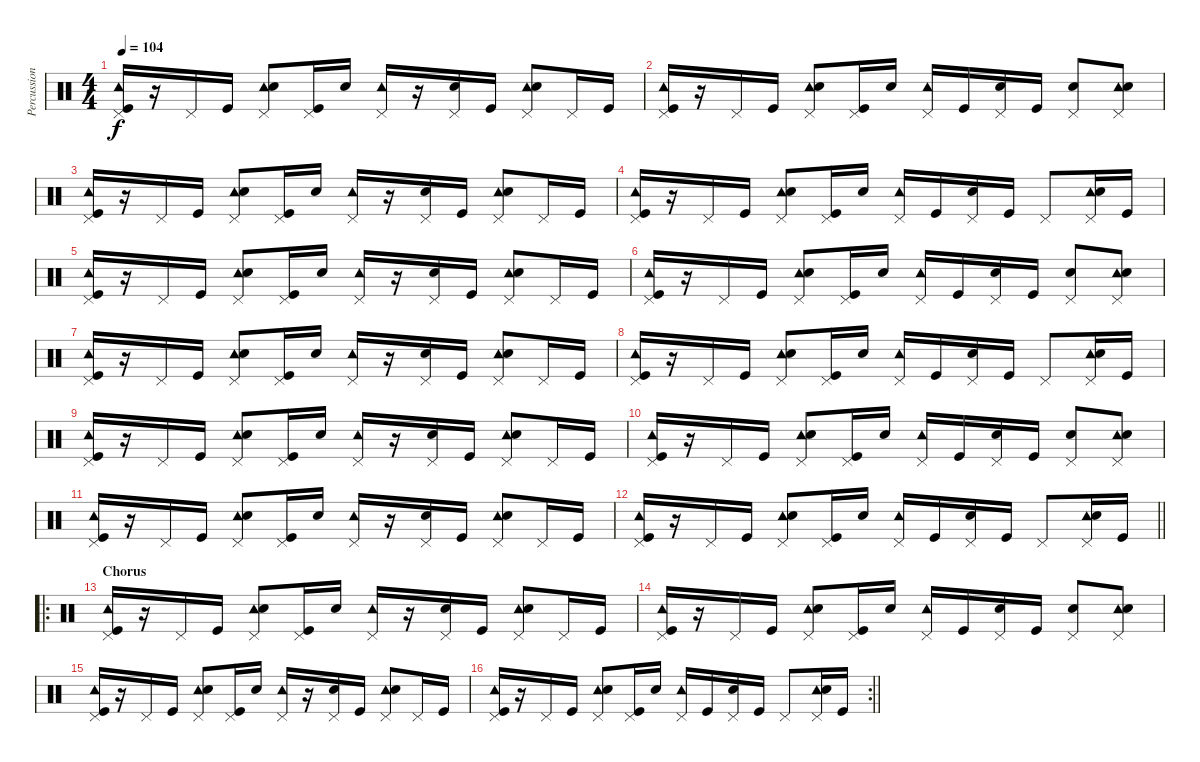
\track ("Percussion" "Percussion") {instrument percussion}
\staff {score}
\articulation defaults
\ts (4 4)
\tempo 104
\clef neutral
\ks c
("Tambourine (hit)" "Pedal Hi-Hat (hit)" "Kick (hit)").16{dy f} r.16 "Pedal Hi-Hat (hit)".16 "Kick (hit)".16 ("Tambourine (hit)" "Pedal Hi-Hat (hit)" "Snare (hit) 2").8 ("Pedal Hi-Hat (hit)" "Kick (hit)").16 "Snare (hit) 2".16 ("Tambourine (hit)" "Pedal Hi-Hat (hit)").16 r.16 ("Pedal Hi-Hat (hit)" "Snare (hit) 2").16 "Kick (hit)".16 ("Tambourine (hit)" "Pedal Hi-Hat (hit)" "Snare (hit) 2").8 "Pedal Hi-Hat (hit)".16 "Kick (hit)".16 |
("Tambourine (hit)" "Pedal Hi-Hat (hit)" "Kick (hit)").16 r.16 "Pedal Hi-Hat (hit)".16 "Kick (hit)".16 ("Tambourine (hit)" "Pedal Hi-Hat (hit)" "Snare (hit) 2").8 ("Pedal Hi-Hat (hit)" "Kick (hit)").16 "Snare (hit) 2".16 ("Tambourine (hit)" "Pedal Hi-Hat (hit)").16 "Kick (hit)".16 ("Pedal Hi-Hat (hit)" "Snare (hit) 2").16 "Kick (hit)".16 ("Pedal Hi-Hat (hit)" "Snare (hit) 2").8 ("Tambourine (hit)" "Pedal Hi-Hat (hit)" "Snare (hit) 2").8 |
("Tambourine (hit)" "Pedal Hi-Hat (hit)" "Kick (hit)").16 r.16 "Pedal Hi-Hat (hit)".16 "Kick (hit)".16 ("Tambourine (hit)" "Pedal Hi-Hat (hit)" "Snare (hit) 2").8 ("Pedal Hi-Hat (hit)" "Kick (hit)").16 "Snare (hit) 2".16 ("Tambourine (hit)" "Pedal Hi-Hat (hit)").16 r.16 ("Pedal Hi-Hat (hit)" "Snare (hit) 2").16 "Kick (hit)".16 ("Tambourine (hit)" "Pedal Hi-Hat (hit)" "Snare (hit) 2").8 "Pedal Hi-Hat (hit)".16 "Kick (hit)".16 |
("Tambourine (hit)" "Pedal Hi-Hat (hit)" "Kick (hit)").16 r.16 "Pedal Hi-Hat (hit)".16 "Kick (hit)".16 ("Tambourine (hit)" "Pedal Hi-Hat (hit)" "Snare (hit) 2").8 ("Pedal Hi-Hat (hit)" "Kick (hit)").16 "Snare (hit) 2".16 ("Tambourine (hit)" "Pedal Hi-Hat (hit)").16 "Kick (hit)".16 ("Pedal Hi-Hat (hit)" "Snare (hit) 2").16 "Kick (hit)".16 "Pedal Hi-Hat (hit)".8 ("Tambourine (hit)" "Pedal Hi-Hat (hit)" "Snare (hit) 2").16 "Kick (hit)".16 |
("Tambourine (hit)" "Pedal Hi-Hat (hit)" "Kick (hit)").16 r.16 "Pedal Hi-Hat (hit)".16 "Kick (hit)".16 ("Tambourine (hit)" "Pedal Hi-Hat (hit)" "Snare (hit) 2").8 ("Pedal Hi-Hat (hit)" "Kick (hit)").16 "Snare (hit) 2".16 ("Tambourine (hit)" "Pedal Hi-Hat (hit)").16 r.16 ("Pedal Hi-Hat (hit)" "Snare (hit) 2").16 "Kick (hit)".16 ("Tambourine (hit)" "Pedal Hi-Hat (hit)" "Snare (hit) 2").8 "Pedal Hi-Hat (hit)".16 "Kick (hit)".16 |
("Tambourine (hit)" "Pedal Hi-Hat (hit)" "Kick (hit)").16 r.16 "Pedal Hi-Hat (hit)".16 "Kick (hit)".16 ("Tambourine (hit)" "Pedal Hi-Hat (hit)" "Snare (hit) 2").8 ("Pedal Hi-Hat (hit)" "Kick (hit)").16 "Snare (hit) 2".16 ("Tambourine (hit)" "Pedal Hi-Hat (hit)").16 "Kick (hit)".16 ("Pedal Hi-Hat (hit)" "Snare (hit) 2").16 "Kick (hit)".16 ("Pedal Hi-Hat (hit)" "Snare (hit) 2").8 ("Tambourine (hit)" "Pedal Hi-Hat (hit)" "Snare (hit) 2").8 |
("Tambourine (hit)" "Pedal Hi-Hat (hit)" "Kick (hit)").16 r.16 "Pedal Hi-Hat (hit)".16 "Kick (hit)".16 ("Tambourine (hit)" "Pedal Hi-Hat (hit)" "Snare (hit) 2").8 ("Pedal Hi-Hat (hit)" "Kick (hit)").16 "Snare (hit) 2".16 ("Tambourine (hit)" "Pedal Hi-Hat (hit)").16 r.16 ("Pedal Hi-Hat (hit)" "Snare (hit) 2").16 "Kick (hit)".16 ("Tambourine (hit)" "Pedal Hi-Hat (hit)" "Snare (hit) 2").8 "Pedal Hi-Hat (hit)".16 "Kick (hit)".16 |
("Tambourine (hit)" "Pedal Hi-Hat (hit)" "Kick (hit)").16 r.16 "Pedal Hi-Hat (hit)".16 "Kick (hit)".16 ("Tambourine (hit)" "Pedal Hi-Hat (hit)" "Snare (hit) 2").8 ("Pedal Hi-Hat (hit)" "Kick (hit)").16 "Snare (hit) 2".16 ("Tambourine (hit)" "Pedal Hi-Hat (hit)").16 "Kick (hit)".16 ("Pedal Hi-Hat (hit)" "Snare (hit) 2").16 "Kick (hit)".16 "Pedal Hi-Hat (hit)".8 ("Tambourine (hit)" "Pedal Hi-Hat (hit)" "Snare (hit) 2").16 "Kick (hit)".16 |
("Tambourine (hit)" "Pedal Hi-Hat (hit)" "Kick (hit)").16 r.16 "Pedal Hi-Hat (hit)".16 "Kick (hit)".16 ("Tambourine (hit)" "Pedal Hi-Hat (hit)" "Snare (hit) 2").8 ("Pedal Hi-Hat (hit)" "Kick (hit)").16 "Snare (hit) 2".16 ("Tambourine (hit)" "Pedal Hi-Hat (hit)").16 r.16 ("Pedal Hi-Hat (hit)" "Snare (hit) 2").16 "Kick (hit)".16 ("Tambourine (hit)" "Pedal Hi-Hat (hit)" "Snare (hit) 2").8 "Pedal Hi-Hat (hit)".16 "Kick (hit)".16 |
("Tambourine (hit)" "Pedal Hi-Hat (hit)" "Kick (hit)").16 r.16 "Pedal Hi-Hat (hit)".16 "Kick (hit)".16 ("Tambourine (hit)" "Pedal Hi-Hat (hit)" "Snare (hit) 2").8 ("Pedal Hi-Hat (hit)" "Kick (hit)").16 "Snare (hit) 2".16 ("Tambourine (hit)" "Pedal Hi-Hat (hit)").16 "Kick (hit)".16 ("Pedal Hi-Hat (hit)" "Snare (hit) 2").16 "Kick (hit)".16 ("Pedal Hi-Hat (hit)" "Snare (hit) 2").8 ("Tambourine (hit)" "Pedal Hi-Hat (hit)" "Snare (hit) 2").8 |
("Tambourine (hit)" "Pedal Hi-Hat (hit)" "Kick (hit)").16 r.16 "Pedal Hi-Hat (hit)".16 "Kick (hit)".16 ("Tambourine (hit)" "Pedal Hi-Hat (hit)" "Snare (hit) 2").8 ("Pedal Hi-Hat (hit)" "Kick (hit)").16 "Snare (hit) 2".16 ("Tambourine (hit)" "Pedal Hi-Hat (hit)").16 r.16 ("Pedal Hi-Hat (hit)" "Snare (hit) 2").16 "Kick (hit)".16 ("Tambourine (hit)" "Pedal Hi-Hat (hit)" "Snare (hit) 2").8 "Pedal Hi-Hat (hit)".16 "Kick (hit)".16 |
\barLineRight lightlight
("Tambourine (hit)" "Pedal Hi-Hat (hit)" "Kick (hit)").16 r.16 "Pedal Hi-Hat (hit)".16 "Kick (hit)".16 ("Tambourine (hit)" "Pedal Hi-Hat (hit)" "Snare (hit) 2").8 ("Pedal Hi-Hat (hit)" "Kick (hit)").16 "Snare (hit) 2".16 ("Tambourine (hit)" "Pedal Hi-Hat (hit)").16 "Kick (hit)".16 ("Pedal Hi-Hat (hit)" "Snare (hit) 2").16 "Kick (hit)".16 "Pedal Hi-Hat (hit)".8 ("Tambourine (hit)" "Pedal Hi-Hat (hit)" "Snare (hit) 2").16 "Kick (hit)".16 |
\ro
\section ("" "Chorus")
("Tambourine (hit)" "Pedal Hi-Hat (hit)" "Kick (hit)").16 r.16 "Pedal Hi-Hat (hit)".16 "Kick (hit)".16 ("Tambourine (hit)" "Pedal Hi-Hat (hit)" "Snare (hit) 2").8 ("Pedal Hi-Hat (hit)" "Kick (hit)").16 "Snare (hit) 2".16 ("Tambourine (hit)" "Pedal Hi-Hat (hit)").16 r.16 ("Pedal Hi-Hat (hit)" "Snare (hit) 2").16 "Kick (hit)".16 ("Tambourine (hit)" "Pedal Hi-Hat (hit)" "Snare (hit) 2").8 "Pedal Hi-Hat (hit)".16 "Kick (hit)".16 |
("Tambourine (hit)" "Pedal Hi-Hat (hit)" "Kick (hit)").16 r.16 "Pedal Hi-Hat (hit)".16 "Kick (hit)".16 ("Tambourine (hit)" "Pedal Hi-Hat (hit)" "Snare (hit) 2").8 ("Pedal Hi-Hat (hit)" "Kick (hit)").16 "Snare (hit) 2".16 ("Tambourine (hit)" "Pedal Hi-Hat (hit)").16 "Kick (hit)".16 ("Pedal Hi-Hat (hit)" "Snare (hit) 2").16 "Kick (hit)".16 ("Pedal Hi-Hat (hit)" "Snare (hit) 2").8 ("Tambourine (hit)" "Pedal Hi-Hat (hit)" "Snare (hit) 2").8 |
("Tambourine (hit)" "Pedal Hi-Hat (hit)" "Kick (hit)").16 r.16 "Pedal Hi-Hat (hit)".16 "Kick (hit)".16 ("Tambourine (hit)" "Pedal Hi-Hat (hit)" "Snare (hit) 2").8 ("Pedal Hi-Hat (hit)" "Kick (hit)").16 "Snare (hit) 2".16 ("Tambourine (hit)" "Pedal Hi-Hat (hit)").16 r.16 ("Pedal Hi-Hat (hit)" "Snare (hit) 2").16 "Kick (hit)".16 ("Tambourine (hit)" "Pedal Hi-Hat (hit)" "Snare (hit) 2").8 "Pedal Hi-Hat (hit)".16 "Kick (hit)".16 |
\rc 2
\barLineRight lightlight
("Tambourine (hit)" "Pedal Hi-Hat (hit)" "Kick (hit)").16 r.16 "Pedal Hi-Hat (hit)".16 "Kick (hit)".16 ("Tambourine (hit)" "Pedal Hi-Hat (hit)" "Snare (hit) 2").8 ("Pedal Hi-Hat (hit)" "Kick (hit)").16 "Snare (hit) 2".16 ("Tambourine (hit)" "Pedal Hi-Hat (hit)").16 "Kick (hit)".16 ("Pedal Hi-Hat (hit)" "Snare (hit) 2").16 "Kick (hit)".16 "Pedal Hi-Hat (hit)".8 ("Tambourine (hit)" "Pedal Hi-Hat (hit)" "Snare (hit) 2").16 "Kick (hit)".16
